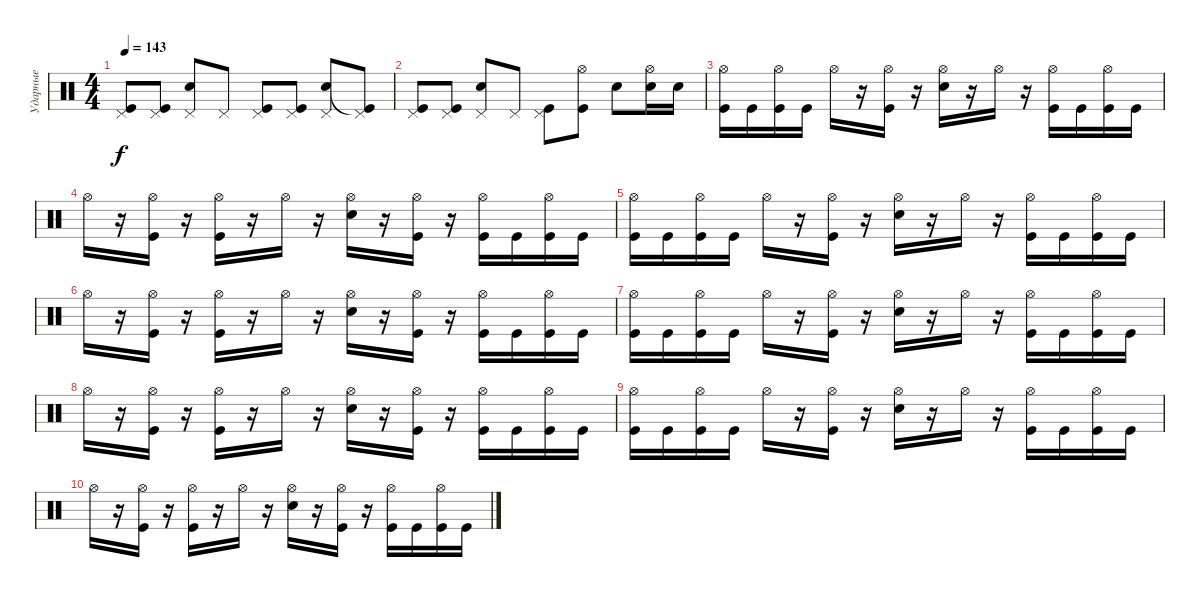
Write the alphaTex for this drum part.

\track ("Ударные" "Ударные") {instrument percussion}
\staff {score}
\articulation defaults
\ts (4 4)
\tempo 143
\clef neutral
\ks c
("Pedal Hi-Hat (hit)" "Kick (hit)").8{dy f} ("Pedal Hi-Hat (hit)" "Kick (hit)").8 ("Pedal Hi-Hat (hit)" "Electric Snare (hit)").8 "Pedal Hi-Hat (hit)".8 ("Pedal Hi-Hat (hit)" "Kick (hit)").8 ("Pedal Hi-Hat (hit)" "Kick (hit)").8 ("Pedal Hi-Hat (hit)" "Electric Snare (hit)").8 ("Pedal Hi-Hat (hit)" "Kick (hit)"{t}).8 |
("Pedal Hi-Hat (hit)" "Kick (hit)").8 ("Pedal Hi-Hat (hit)" "Kick (hit)").8 ("Pedal Hi-Hat (hit)" "Electric Snare (hit)").8 "Pedal Hi-Hat (hit)".8 ("Pedal Hi-Hat (hit)" "Kick (hit)").8 ("Hi-Hat (open)" "Kick (hit)").8 "Electric Snare (hit)".8 ("Hi-Hat (open)" "Electric Snare (hit)").16 "Electric Snare (hit)".16 |
("Hi-Hat (open)" "Kick (hit)").16 "Kick (hit)".16 ("Hi-Hat (open)" "Kick (hit)").16 "Kick (hit)".16 "Hi-Hat (open)".16 r.16 ("Hi-Hat (open)" "Kick (hit)").16 r.16 ("Hi-Hat (open)" "Electric Snare (hit)").16 r.16 "Hi-Hat (open)".16 r.16 ("Hi-Hat (open)" "Kick (hit)").16 "Kick (hit)".16 ("Hi-Hat (open)" "Kick (hit)").16 "Kick (hit)".16 |
"Hi-Hat (open)".16 r.16 ("Hi-Hat (open)" "Kick (hit)").16 r.16 ("Hi-Hat (open)" "Kick (hit)").16 r.16 "Hi-Hat (open)".16 r.16 ("Hi-Hat (open)" "Electric Snare (hit)").16 r.16 ("Hi-Hat (open)" "Kick (hit)").16 r.16 ("Hi-Hat (open)" "Kick (hit)").16 "Kick (hit)".16 ("Hi-Hat (open)" "Kick (hit)").16 "Kick (hit)".16 |
("Hi-Hat (open)" "Kick (hit)").16 "Kick (hit)".16 ("Hi-Hat (open)" "Kick (hit)").16 "Kick (hit)".16 "Hi-Hat (open)".16 r.16 ("Hi-Hat (open)" "Kick (hit)").16 r.16 ("Hi-Hat (open)" "Electric Snare (hit)").16 r.16 "Hi-Hat (open)".16 r.16 ("Hi-Hat (open)" "Kick (hit)").16 "Kick (hit)".16 ("Hi-Hat (open)" "Kick (hit)").16 "Kick (hit)".16 |
"Hi-Hat (open)".16 r.16 ("Hi-Hat (open)" "Kick (hit)").16 r.16 ("Hi-Hat (open)" "Kick (hit)").16 r.16 "Hi-Hat (open)".16 r.16 ("Hi-Hat (open)" "Electric Snare (hit)").16 r.16 ("Hi-Hat (open)" "Kick (hit)").16 r.16 ("Hi-Hat (open)" "Kick (hit)").16 "Kick (hit)".16 ("Hi-Hat (open)" "Kick (hit)").16 "Kick (hit)".16 |
("Hi-Hat (open)" "Kick (hit)").16 "Kick (hit)".16 ("Hi-Hat (open)" "Kick (hit)").16 "Kick (hit)".16 "Hi-Hat (open)".16 r.16 ("Hi-Hat (open)" "Kick (hit)").16 r.16 ("Hi-Hat (open)" "Electric Snare (hit)").16 r.16 "Hi-Hat (open)".16 r.16 ("Hi-Hat (open)" "Kick (hit)").16 "Kick (hit)".16 ("Hi-Hat (open)" "Kick (hit)").16 "Kick (hit)".16 |
"Hi-Hat (open)".16 r.16 ("Hi-Hat (open)" "Kick (hit)").16 r.16 ("Hi-Hat (open)" "Kick (hit)").16 r.16 "Hi-Hat (open)".16 r.16 ("Hi-Hat (open)" "Electric Snare (hit)").16 r.16 ("Hi-Hat (open)" "Kick (hit)").16 r.16 ("Hi-Hat (open)" "Kick (hit)").16 "Kick (hit)".16 ("Hi-Hat (open)" "Kick (hit)").16 "Kick (hit)".16 |
("Hi-Hat (open)" "Kick (hit)").16 "Kick (hit)".16 ("Hi-Hat (open)" "Kick (hit)").16 "Kick (hit)".16 "Hi-Hat (open)".16 r.16 ("Hi-Hat (open)" "Kick (hit)").16 r.16 ("Hi-Hat (open)" "Electric Snare (hit)").16 r.16 "Hi-Hat (open)".16 r.16 ("Hi-Hat (open)" "Kick (hit)").16 "Kick (hit)".16 ("Hi-Hat (open)" "Kick (hit)").16 "Kick (hit)".16 |
"Hi-Hat (open)".16 r.16 ("Hi-Hat (open)" "Kick (hit)").16 r.16 ("Hi-Hat (open)" "Kick (hit)").16 r.16 "Hi-Hat (open)".16 r.16 ("Hi-Hat (open)" "Electric Snare (hit)").16 r.16 ("Hi-Hat (open)" "Kick (hit)").16 r.16 ("Hi-Hat (open)" "Kick (hit)").16 "Kick (hit)".16 ("Hi-Hat (open)" "Kick (hit)").16 "Kick (hit)".16
